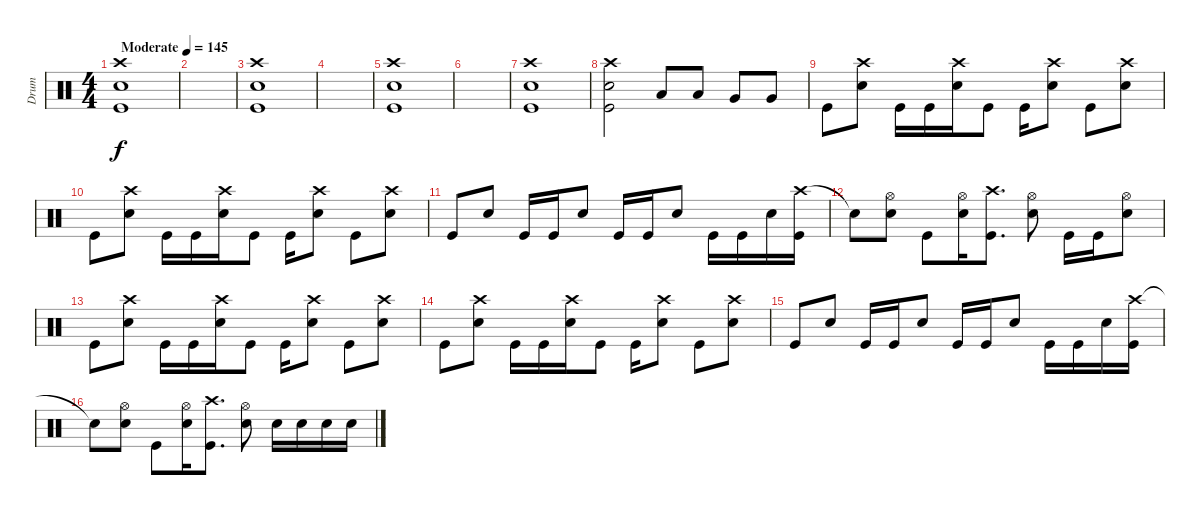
\track ("Drum" "Drum") {instrument percussion}
\staff {score}
\articulation defaults
\ts (4 4)
\tempo (145 "Moderate")
\clef neutral
\ks c
("Crash high (hit)" "Snare (hit) 2" "Kick (hit)").1{dy f} |
|
("Crash high (hit)" "Snare (hit) 2" "Kick (hit)").1 |
|
("Crash high (hit)" "Snare (hit) 2" "Kick (hit)").1 |
|
("Crash high (hit)" "Snare (hit) 2" "Kick (hit)").1 |
("Crash high (hit)" "Snare (hit) 2" "Kick (hit)").2 "Low Tom (hit)".8 "Low Tom (hit)".8 "Very Low Tom (hit)".8 "Very Low Tom (hit)".8 |
"Kick (hit)".8 ("Crash high (hit)" "Snare (hit) 2").8 "Kick (hit)".16 "Kick (hit)".16 ("Crash high (hit)" "Snare (hit) 2").16 "Kick (hit)".8 "Kick (hit)".16 ("Crash high (hit)" "Snare (hit) 2").8 "Kick (hit)".8 ("Crash high (hit)" "Snare (hit) 2").8 |
"Kick (hit)".8 ("Crash high (hit)" "Snare (hit) 2").8 "Kick (hit)".16 "Kick (hit)".16 ("Crash high (hit)" "Snare (hit) 2").16 "Kick (hit)".8 "Kick (hit)".16 ("Crash high (hit)" "Snare (hit) 2").8 "Kick (hit)".8 ("Crash high (hit)" "Snare (hit) 2").8 |
"Kick (hit)".8 "Snare (hit) 2".8 "Kick (hit)".16 "Kick (hit)".16 "Snare (hit) 2".8 "Kick (hit)".16 "Kick (hit)".16 "Snare (hit) 2".8 "Kick (hit)".16 "Kick (hit)".16 "Snare (hit) 2".16 ("Crash high (hit)" "Kick (hit)").16 |
"Snare (hit)"{t}.8 ("Hi-Hat (open)" "Snare (hit) 2").8 "Kick (hit)".8 ("Hi-Hat (open)" "Snare (hit) 2").16 ("Crash high (hit)" "Kick (hit)").8{d} ("Hi-Hat (open)" "Snare (hit) 2").8 "Kick (hit)".16 "Kick (hit)".16 ("Hi-Hat (open)" "Snare (hit) 2").8 |
"Kick (hit)".8 ("Crash high (hit)" "Snare (hit) 2").8 "Kick (hit)".16 "Kick (hit)".16 ("Crash high (hit)" "Snare (hit) 2").16 "Kick (hit)".8 "Kick (hit)".16 ("Crash high (hit)" "Snare (hit) 2").8 "Kick (hit)".8 ("Crash high (hit)" "Snare (hit) 2").8 |
"Kick (hit)".8 ("Crash high (hit)" "Snare (hit) 2").8 "Kick (hit)".16 "Kick (hit)".16 ("Crash high (hit)" "Snare (hit) 2").16 "Kick (hit)".8 "Kick (hit)".16 ("Crash high (hit)" "Snare (hit) 2").8 "Kick (hit)".8 ("Crash high (hit)" "Snare (hit) 2").8 |
"Kick (hit)".8 "Snare (hit) 2".8 "Kick (hit)".16 "Kick (hit)".16 "Snare (hit) 2".8 "Kick (hit)".16 "Kick (hit)".16 "Snare (hit) 2".8 "Kick (hit)".16 "Kick (hit)".16 "Snare (hit) 2".16 ("Crash high (hit)" "Kick (hit)").16 |
"Snare (hit)"{t}.8 ("Hi-Hat (open)" "Snare (hit) 2").8 "Kick (hit)".8 ("Hi-Hat (open)" "Snare (hit) 2").16 ("Crash high (hit)" "Kick (hit)").8{d} ("Hi-Hat (open)" "Snare (hit) 2").8 "Snare (hit) 2".16 "Snare (hit) 2".16 "Snare (hit) 2".16 "Snare (hit) 2".16
